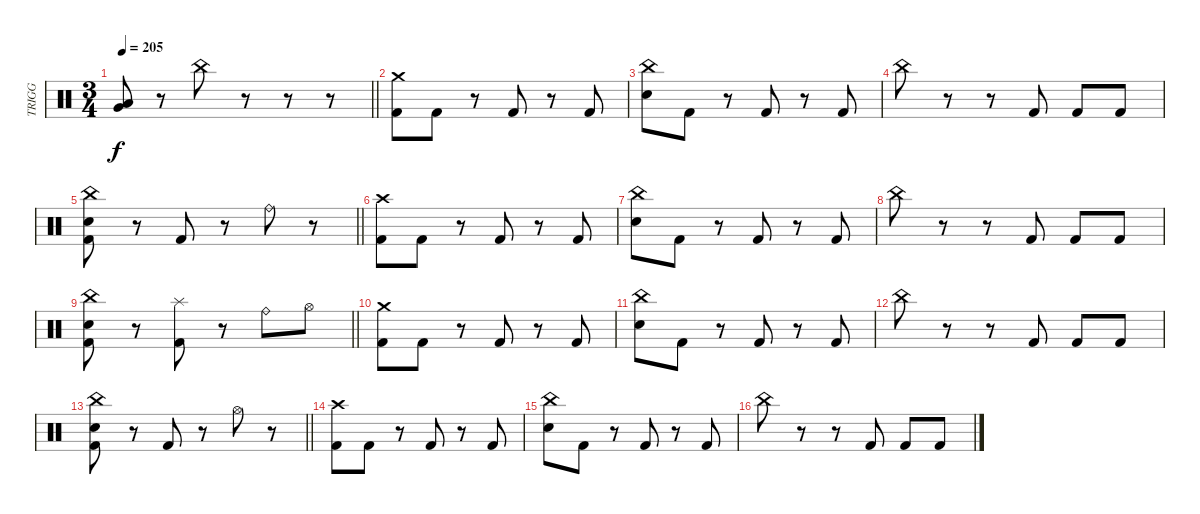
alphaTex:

\track ("TRIGG" "TRIGG") {instrument percussion}
\staff {score}
\articulation defaults
\ts (3 4)
\tempo 205
\clef neutral
\barLineRight lightlight
\ks c
("Low Tom (hit)" "Very Low Tom (hit)").8{dy f} r.8 "China (hit)".8 r.8 r.8 r.8 |
("Crash medium (hit)" "Kick (hit) 2").8 "Kick (hit) 2".8 r.8 "Kick (hit) 2".8 r.8 "Kick (hit) 2".8 |
("China (hit)" "Electric Snare (hit)").8 "Kick (hit) 2".8 r.8 "Kick (hit) 2".8 r.8 "Kick (hit) 2".8 |
"China (hit)".8 r.8 r.8 "Kick (hit) 2".8 "Kick (hit) 2".8 "Kick (hit) 2".8 |
\barLineRight lightlight
("China (hit)" "Electric Snare (hit)" "Kick (hit) 2").8 r.8 "Kick (hit) 2".8 r.8 "Ride (bell)".8 r.8 |
("Crash high (hit)" "Kick (hit) 2").8 "Kick (hit) 2".8 r.8 "Kick (hit) 2".8 r.8 "Kick (hit) 2".8 |
("China (hit)" "Electric Snare (hit)").8 "Kick (hit) 2".8 r.8 "Kick (hit) 2".8 r.8 "Kick (hit) 2".8 |
"China (hit)".8 r.8 r.8 "Kick (hit) 2".8 "Kick (hit) 2".8 "Kick (hit) 2".8 |
\barLineRight lightlight
("China (hit)" "Electric Snare (hit)" "Kick (hit) 2").8 r.8 ("Splash (hit)" "Kick (hit) 2").8 r.8 "Ride (bell)".8 "Hi-Hat (open)".8 |
("Crash medium (hit)" "Kick (hit) 2").8 "Kick (hit) 2".8 r.8 "Kick (hit) 2".8 r.8 "Kick (hit) 2".8 |
("China (hit)" "Electric Snare (hit)").8 "Kick (hit) 2".8 r.8 "Kick (hit) 2".8 r.8 "Kick (hit) 2".8 |
"China (hit)".8 r.8 r.8 "Kick (hit) 2".8 "Kick (hit) 2".8 "Kick (hit) 2".8 |
\barLineRight lightlight
("China (hit)" "Electric Snare (hit)" "Kick (hit) 2").8 r.8 "Kick (hit) 2".8 r.8 "Hi-Hat (open)".8 r.8 |
("Crash high (hit)" "Kick (hit) 2").8 "Kick (hit) 2".8 r.8 "Kick (hit) 2".8 r.8 "Kick (hit) 2".8 |
("China (hit)" "Electric Snare (hit)").8 "Kick (hit) 2".8 r.8 "Kick (hit) 2".8 r.8 "Kick (hit) 2".8 |
"China (hit)".8 r.8 r.8 "Kick (hit) 2".8 "Kick (hit) 2".8 "Kick (hit) 2".8
